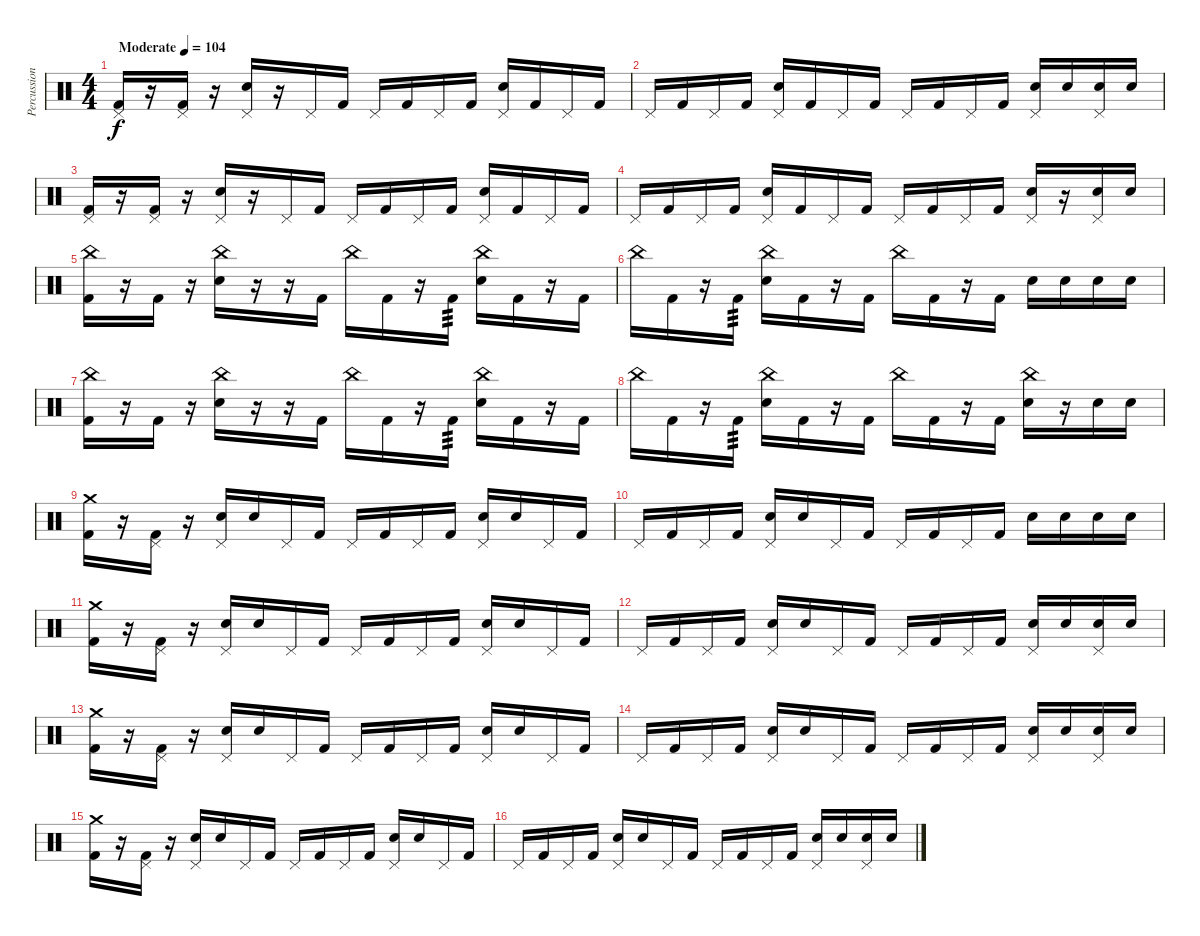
\track ("Percussion" "Percussion") {instrument percussion}
\staff {score}
\articulation defaults
\ts (4 4)
\tempo (104 "Moderate")
\clef neutral
\ks c
("Pedal Hi-Hat (hit)" "Kick (hit) 2").16{dy f} r.16 ("Pedal Hi-Hat (hit)" "Kick (hit) 2").16 r.16 ("Pedal Hi-Hat (hit)" "Snare (hit) 2").16 r.16 "Pedal Hi-Hat (hit)".16 "Kick (hit) 2".16 "Pedal Hi-Hat (hit)".16 "Kick (hit) 2".16 "Pedal Hi-Hat (hit)".16 "Kick (hit) 2".16 ("Pedal Hi-Hat (hit)" "Snare (hit) 2").16 "Kick (hit) 2".16 "Pedal Hi-Hat (hit)".16 "Kick (hit) 2".16 |
"Pedal Hi-Hat (hit)".16 "Kick (hit) 2".16 "Pedal Hi-Hat (hit)".16 "Kick (hit) 2".16 ("Pedal Hi-Hat (hit)" "Snare (hit) 2").16 "Kick (hit) 2".16 "Pedal Hi-Hat (hit)".16 "Kick (hit) 2".16 "Pedal Hi-Hat (hit)".16 "Kick (hit) 2".16 "Pedal Hi-Hat (hit)".16 "Kick (hit) 2".16 ("Pedal Hi-Hat (hit)" "Snare (hit) 2").16 "Snare (hit) 2".16 ("Pedal Hi-Hat (hit)" "Snare (hit) 2").16 "Snare (hit) 2".16 |
("Pedal Hi-Hat (hit)" "Kick (hit) 2").16 r.16 ("Pedal Hi-Hat (hit)" "Kick (hit) 2").16 r.16 ("Pedal Hi-Hat (hit)" "Snare (hit) 2").16 r.16 "Pedal Hi-Hat (hit)".16 "Kick (hit) 2".16 "Pedal Hi-Hat (hit)".16 "Kick (hit) 2".16 "Pedal Hi-Hat (hit)".16 "Kick (hit) 2".16 ("Pedal Hi-Hat (hit)" "Snare (hit) 2").16 "Kick (hit) 2".16 "Pedal Hi-Hat (hit)".16 "Kick (hit) 2".16 |
"Pedal Hi-Hat (hit)".16 "Kick (hit) 2".16 "Pedal Hi-Hat (hit)".16 "Kick (hit) 2".16 ("Pedal Hi-Hat (hit)" "Snare (hit) 2").16 "Kick (hit) 2".16 "Pedal Hi-Hat (hit)".16 "Kick (hit) 2".16 "Pedal Hi-Hat (hit)".16 "Kick (hit) 2".16 "Pedal Hi-Hat (hit)".16 "Kick (hit) 2".16 ("Pedal Hi-Hat (hit)" "Snare (hit) 2").16 r.16 ("Pedal Hi-Hat (hit)" "Snare (hit) 2").16 "Snare (hit) 2".16 |
("China (hit)" "Kick (hit) 2").16 r.16 "Kick (hit) 2".16 r.16 ("China (hit)" "Snare (hit) 2").16 r.16 r.16 "Kick (hit) 2".16 "China (hit)".16 "Kick (hit) 2".16 r.16 "Kick (hit) 2".16{tp 3} ("China (hit)" "Snare (hit) 2").16 "Kick (hit) 2".16 r.16 "Kick (hit) 2".16 |
"China (hit)".16 "Kick (hit) 2".16 r.16 "Kick (hit) 2".16{tp 3} ("China (hit)" "Snare (hit) 2").16 "Kick (hit) 2".16 r.16 "Kick (hit) 2".16 "China (hit)".16 "Kick (hit) 2".16 r.16 "Kick (hit) 2".16 "Snare (hit) 2".16 "Snare (hit) 2".16 "Snare (hit) 2".16 "Snare (hit) 2".16 |
("China (hit)" "Kick (hit) 2").16 r.16 "Kick (hit) 2".16 r.16 ("China (hit)" "Snare (hit) 2").16 r.16 r.16 "Kick (hit) 2".16 "China (hit)".16 "Kick (hit) 2".16 r.16 "Kick (hit) 2".16{tp 3} ("China (hit)" "Snare (hit) 2").16 "Kick (hit) 2".16 r.16 "Kick (hit) 2".16 |
"China (hit)".16 "Kick (hit) 2".16 r.16 "Kick (hit) 2".16{tp 3} ("China (hit)" "Snare (hit) 2").16 "Kick (hit) 2".16 r.16 "Kick (hit) 2".16 "China (hit)".16 "Kick (hit) 2".16 r.16 "Kick (hit) 2".16 ("China (hit)" "Snare (hit) 2").16 r.16 "Snare (hit) 2".16 "Snare (hit) 2".16 |
("Crash medium (hit)" "Kick (hit) 2").16 r.16 ("Pedal Hi-Hat (hit)" "Kick (hit) 2").16 r.16 ("Pedal Hi-Hat (hit)" "Snare (hit) 2").16 "Snare (hit) 2".16 "Pedal Hi-Hat (hit)".16 "Kick (hit) 2".16 "Pedal Hi-Hat (hit)".16 "Kick (hit) 2".16 "Pedal Hi-Hat (hit)".16 "Kick (hit) 2".16 ("Pedal Hi-Hat (hit)" "Snare (hit) 2").16 "Snare (hit) 2".16 "Pedal Hi-Hat (hit)".16 "Kick (hit) 2".16 |
"Pedal Hi-Hat (hit)".16 "Kick (hit) 2".16 "Pedal Hi-Hat (hit)".16 "Kick (hit) 2".16 ("Pedal Hi-Hat (hit)" "Snare (hit) 2").16 "Snare (hit) 2".16 "Pedal Hi-Hat (hit)".16 "Kick (hit) 2".16 "Pedal Hi-Hat (hit)".16 "Kick (hit) 2".16 "Pedal Hi-Hat (hit)".16 "Kick (hit) 2".16 "Snare (hit) 2".16 "Snare (hit) 2".16 "Snare (hit) 2".16 "Snare (hit) 2".16 |
("Crash medium (hit)" "Kick (hit) 2").16 r.16 ("Pedal Hi-Hat (hit)" "Kick (hit) 2").16 r.16 ("Pedal Hi-Hat (hit)" "Snare (hit) 2").16 "Snare (hit) 2".16 "Pedal Hi-Hat (hit)".16 "Kick (hit) 2".16 "Pedal Hi-Hat (hit)".16 "Kick (hit) 2".16 "Pedal Hi-Hat (hit)".16 "Kick (hit) 2".16 ("Pedal Hi-Hat (hit)" "Snare (hit) 2").16 "Snare (hit) 2".16 "Pedal Hi-Hat (hit)".16 "Kick (hit) 2".16 |
"Pedal Hi-Hat (hit)".16 "Kick (hit) 2".16 "Pedal Hi-Hat (hit)".16 "Kick (hit) 2".16 ("Pedal Hi-Hat (hit)" "Snare (hit) 2").16 "Snare (hit) 2".16 "Pedal Hi-Hat (hit)".16 "Kick (hit) 2".16 "Pedal Hi-Hat (hit)".16 "Kick (hit) 2".16 "Pedal Hi-Hat (hit)".16 "Kick (hit) 2".16 ("Pedal Hi-Hat (hit)" "Snare (hit) 2").16 "Snare (hit) 2".16 ("Pedal Hi-Hat (hit)" "Snare (hit) 2").16 "Snare (hit) 2".16 |
("Crash medium (hit)" "Kick (hit) 2").16 r.16 ("Pedal Hi-Hat (hit)" "Kick (hit) 2").16 r.16 ("Pedal Hi-Hat (hit)" "Snare (hit) 2").16 "Snare (hit) 2".16 "Pedal Hi-Hat (hit)".16 "Kick (hit) 2".16 "Pedal Hi-Hat (hit)".16 "Kick (hit) 2".16 "Pedal Hi-Hat (hit)".16 "Kick (hit) 2".16 ("Pedal Hi-Hat (hit)" "Snare (hit) 2").16 "Snare (hit) 2".16 "Pedal Hi-Hat (hit)".16 "Kick (hit) 2".16 |
"Pedal Hi-Hat (hit)".16 "Kick (hit) 2".16 "Pedal Hi-Hat (hit)".16 "Kick (hit) 2".16 ("Pedal Hi-Hat (hit)" "Snare (hit) 2").16 "Snare (hit) 2".16 "Pedal Hi-Hat (hit)".16 "Kick (hit) 2".16 "Pedal Hi-Hat (hit)".16 "Kick (hit) 2".16 "Pedal Hi-Hat (hit)".16 "Kick (hit) 2".16 ("Pedal Hi-Hat (hit)" "Snare (hit) 2").16 "Snare (hit) 2".16 ("Pedal Hi-Hat (hit)" "Snare (hit) 2").16 "Snare (hit) 2".16 |
("Crash medium (hit)" "Kick (hit) 2").16 r.16 ("Pedal Hi-Hat (hit)" "Kick (hit) 2").16 r.16 ("Pedal Hi-Hat (hit)" "Snare (hit) 2").16 "Snare (hit) 2".16 "Pedal Hi-Hat (hit)".16 "Kick (hit) 2".16 "Pedal Hi-Hat (hit)".16 "Kick (hit) 2".16 "Pedal Hi-Hat (hit)".16 "Kick (hit) 2".16 ("Pedal Hi-Hat (hit)" "Snare (hit) 2").16 "Snare (hit) 2".16 "Pedal Hi-Hat (hit)".16 "Kick (hit) 2".16 |
"Pedal Hi-Hat (hit)".16 "Kick (hit) 2".16 "Pedal Hi-Hat (hit)".16 "Kick (hit) 2".16 ("Pedal Hi-Hat (hit)" "Snare (hit) 2").16 "Snare (hit) 2".16 "Pedal Hi-Hat (hit)".16 "Kick (hit) 2".16 "Pedal Hi-Hat (hit)".16 "Kick (hit) 2".16 "Pedal Hi-Hat (hit)".16 "Kick (hit) 2".16 ("Pedal Hi-Hat (hit)" "Snare (hit) 2").16 "Snare (hit) 2".16 ("Pedal Hi-Hat (hit)" "Snare (hit) 2").16 "Snare (hit) 2".16
